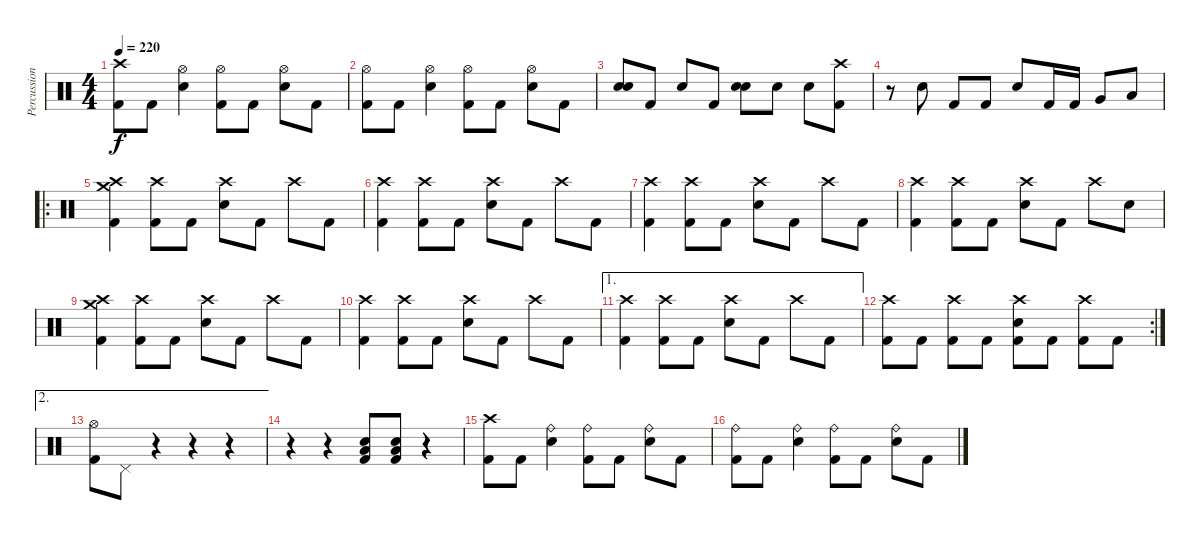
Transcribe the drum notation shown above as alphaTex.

\track ("Percussions" "Percussion") {instrument percussion}
\staff {score}
\articulation defaults
\ts (4 4)
\tempo 220
\clef neutral
\ks c
("Crash high (hit)" "Kick (hit) 2").8{dy f} "Kick (hit) 2".8 ("Hi-Hat (open)" "Snare (hit) 2").4 ("Hi-Hat (open)" "Kick (hit) 2").8 "Kick (hit) 2".8 ("Hi-Hat (open)" "Snare (hit) 2").8 "Kick (hit) 2".8 |
("Hi-Hat (open)" "Kick (hit) 2").8 "Kick (hit) 2".8 ("Hi-Hat (open)" "Snare (hit) 2").4 ("Hi-Hat (open)" "Kick (hit) 2").8 "Kick (hit) 2".8 ("Hi-Hat (open)" "Snare (hit) 2").8 "Kick (hit) 2".8 |
("Snare (hit) 2" "Snare (hit) 2").8{bd 120} "Kick (hit) 2".8 "Snare (hit) 2".8 "Kick (hit) 2".8 ("Snare (hit) 2" "Snare (hit) 2").8{bd 120} "Snare (hit) 2".8 "Snare (hit) 2".8 ("Crash high (hit)" "Kick (hit) 2").8 |
r.8 "Snare (hit) 2".8 "Kick (hit) 2".8 "Kick (hit) 2".8 "Snare (hit) 2".8 "Kick (hit) 2".16 "Kick (hit) 2".16 "Very Low Tom (hit)".8 "Low Floor Tom (hit)".8 |
\ro
("Crash high (hit)" "Crash medium (hit)" "Kick (hit) 2").4 ("Crash high (hit)" "Kick (hit) 2").8 "Kick (hit) 2".8 ("Crash high (hit)" "Snare (hit) 2").8 "Kick (hit) 2".8 "Crash high (hit)".8 "Kick (hit) 2".8 |
("Crash high (hit)" "Kick (hit) 2").4 ("Crash high (hit)" "Kick (hit) 2").8 "Kick (hit) 2".8 ("Crash high (hit)" "Snare (hit) 2").8 "Kick (hit) 2".8 "Crash high (hit)".8 "Kick (hit) 2".8 |
("Crash high (hit)" "Kick (hit) 2").4 ("Crash high (hit)" "Kick (hit) 2").8 "Kick (hit) 2".8 ("Crash high (hit)" "Snare (hit) 2").8 "Kick (hit) 2".8 "Crash high (hit)".8 "Kick (hit) 2".8 |
("Crash high (hit)" "Kick (hit) 2").4 ("Crash high (hit)" "Kick (hit) 2").8 "Kick (hit) 2".8 ("Crash high (hit)" "Snare (hit) 2").8 "Kick (hit) 2".8 "Crash high (hit)".8 "Snare (hit) 2".8 |
("Crash high (hit)" "Crash medium (hit)" "Kick (hit) 2").4 ("Crash high (hit)" "Kick (hit) 2").8 "Kick (hit) 2".8 ("Crash high (hit)" "Snare (hit) 2").8 "Kick (hit) 2".8 "Crash high (hit)".8 "Kick (hit) 2".8 |
("Crash high (hit)" "Kick (hit) 2").4 ("Crash high (hit)" "Kick (hit) 2").8 "Kick (hit) 2".8 ("Crash high (hit)" "Snare (hit) 2").8 "Kick (hit) 2".8 "Crash high (hit)".8 "Kick (hit) 2".8 |
\ae 1
("Crash high (hit)" "Kick (hit) 2").4 ("Crash high (hit)" "Kick (hit) 2").8 "Kick (hit) 2".8 ("Crash high (hit)" "Snare (hit) 2").8 "Kick (hit) 2".8 "Crash high (hit)".8 "Kick (hit) 2".8 |
\rc 2
("Crash high (hit)" "Kick (hit) 2").8 "Kick (hit) 2".8 ("Crash high (hit)" "Kick (hit) 2").8 "Kick (hit) 2".8 ("Crash high (hit)" "Snare (hit) 2" "Kick (hit) 2").8 "Kick (hit) 2".8 ("Crash high (hit)" "Kick (hit) 2").8 "Kick (hit) 2".8 |
\ae 2
("Hi-Hat (open)" "Kick (hit) 2").8 "Pedal Hi-Hat (hit)".8 r.4 r.4 r.4 |
r.4 r.4 ("Low Floor Tom (hit)" "Snare (hit) 2" "Kick (hit) 2").8 ("Low Floor Tom (hit)" "Snare (hit) 2" "Kick (hit) 2").8 r.4 |
("Crash high (hit)" "Kick (hit) 2").8 "Kick (hit) 2".8 ("Ride (bell)" "Snare (hit) 2").4 ("Ride (bell)" "Kick (hit) 2").8 "Kick (hit) 2".8 ("Ride (bell)" "Snare (hit) 2").8 "Kick (hit) 2".8 |
("Ride (bell)" "Kick (hit) 2").8 "Kick (hit) 2".8 ("Ride (bell)" "Snare (hit) 2").4 ("Ride (bell)" "Kick (hit) 2").8 "Kick (hit) 2".8 ("Ride (bell)" "Snare (hit) 2").8 "Kick (hit) 2".8
